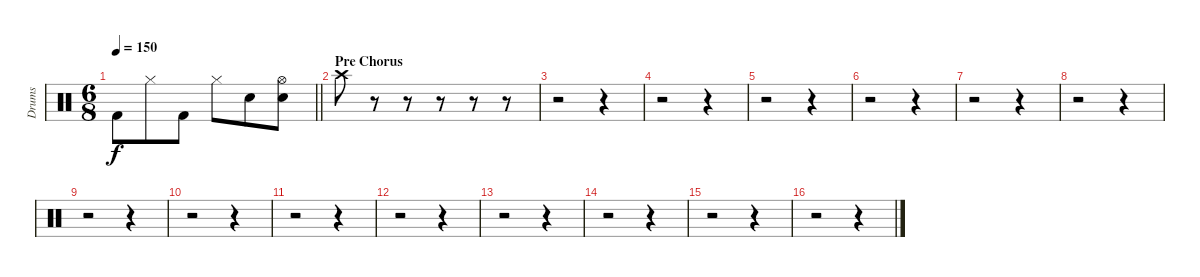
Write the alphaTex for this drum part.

\track ("Drums" "Drums") {mute instrument percussion}
\staff {score}
\articulation defaults
\ts (6 8)
\tempo 150
\clef neutral
\barLineRight lightlight
\ks c "Kick (hit) 2".8{dy f} "Hi-Hat (closed)".8 "Kick (hit) 2".8 "Hi-Hat (closed)".8 "Electric Snare (hit)".8
("Hi-Hat (open)" "Electric Snare (hit)").8 |
\section ("" "Pre Chorus")
"Crash high (hit)".8 r.8 r.8 r.8 r.8 r.8 |
r.2 r.4 |
r.2 r.4 |
r.2 r.4 |
r.2 r.4 |
r.2 r.4 |
r.2 r.4 |
r.2 r.4 |
r.2 r.4 |
r.2 r.4 |
r.2 r.4 |
r.2 r.4 |
r.2 r.4 |
r.2 r.4 |
r.2 r.4
